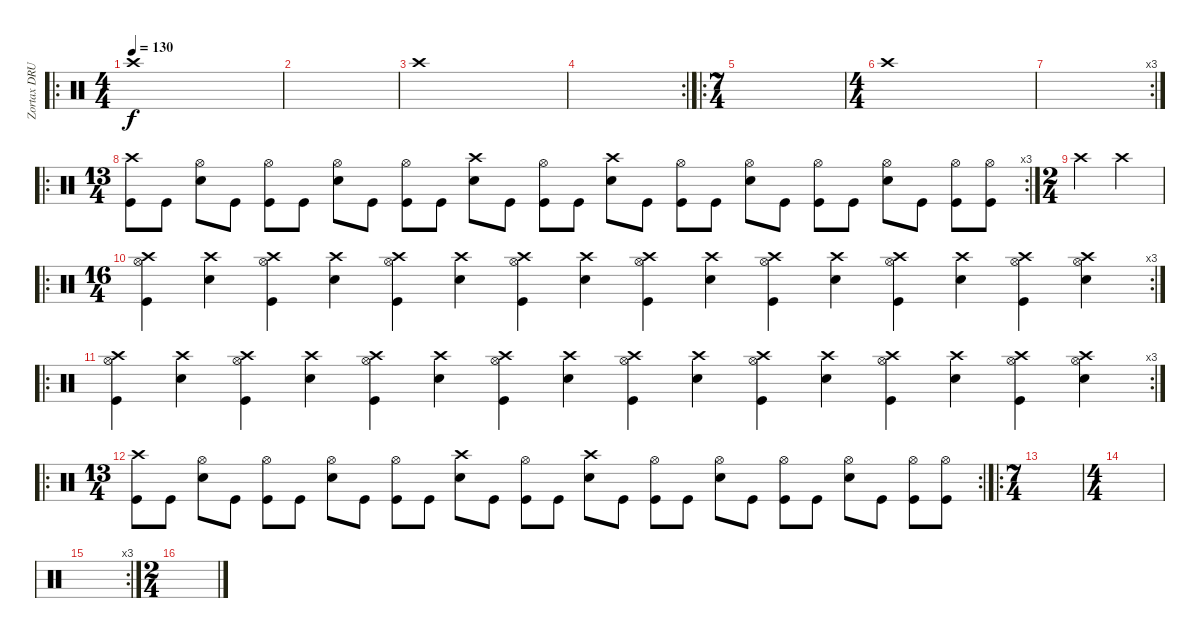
\track ("Zortax DRUMS" "Zortax DRU") {instrument percussion}
\staff {score}
\articulation defaults
\ro
\ts (4 4)
\tempo 130
\clef neutral
\ks c "Crash high (hit)".1{dy f}
|
|
"Crash high (hit)".1 |
\rc 2
|
\ro
\ts (7 4)
|
\ts (4 4)
"Crash high (hit)".1 |
\rc 3
|
\ro
\rc 3
\ts (13 4)
("Crash high (hit)" "Kick (hit)").8 "Kick (hit)".8 ("Hi-Hat (open)" "Electric Snare (hit)").8 "Kick (hit)".8 ("Hi-Hat (open)" "Kick (hit)").8 "Kick (hit)".8 ("Hi-Hat (open)" "Electric Snare (hit)").8 "Kick (hit)".8 ("Hi-Hat (open)" "Kick (hit)").8 "Kick (hit)".8 ("Crash high (hit)" "Electric Snare (hit)").8 "Kick (hit)".8 ("Hi-Hat (open)" "Kick (hit)").8 "Kick (hit)".8 ("Crash high (hit)" "Electric Snare (hit)").8 "Kick (hit)".8 ("Hi-Hat (open)" "Kick (hit)").8 "Kick (hit)".8 ("Hi-Hat (open)" "Electric Snare (hit)").8 "Kick (hit)".8 ("Hi-Hat (open)" "Kick (hit)").8 "Kick (hit)".8 ("Hi-Hat (open)" "Electric Snare (hit)").8 "Kick (hit)".8 ("Hi-Hat (open)" "Kick (hit)").8 ("Hi-Hat (open)" "Kick (hit)").8 |
\ts (2 4)
"Crash high (hit)".4 "Crash high (hit)".4 |
\ro
\rc 3
\ts (16 4)
("Kick (hit)" "Hi-Hat (open)" "Crash high (hit)").4 ("Snare (hit) 2" "Crash high (hit)").4 ("Kick (hit)" "Hi-Hat (open)" "Crash high (hit)").4 ("Snare (hit) 2" "Crash high (hit)").4 ("Kick (hit)" "Hi-Hat (open)" "Crash high (hit)").4 ("Snare (hit) 2" "Crash high (hit)").4 ("Kick (hit)" "Hi-Hat (open)" "Crash high (hit)").4 ("Snare (hit) 2" "Crash high (hit)").4 ("Kick (hit)" "Hi-Hat (open)" "Crash high (hit)").4 ("Snare (hit) 2" "Crash high (hit)").4 ("Kick (hit)" "Hi-Hat (open)" "Crash high (hit)").4 ("Snare (hit) 2" "Crash high (hit)").4 ("Kick (hit)" "Hi-Hat (open)" "Crash high (hit)").4 ("Snare (hit) 2" "Crash high (hit)").4 ("Kick (hit)" "Hi-Hat (open)" "Crash high (hit)").4 ("Snare (hit) 2" "Hi-Hat (open)" "Crash high (hit)").4 |
\ro
\rc 3
("Kick (hit)" "Hi-Hat (open)" "Crash high (hit)").4 ("Snare (hit) 2" "Crash high (hit)").4 ("Kick (hit)" "Hi-Hat (open)" "Crash high (hit)").4 ("Snare (hit) 2" "Crash high (hit)").4 ("Kick (hit)" "Hi-Hat (open)" "Crash high (hit)").4 ("Snare (hit) 2" "Crash high (hit)").4 ("Kick (hit)" "Hi-Hat (open)" "Crash high (hit)").4 ("Snare (hit) 2" "Crash high (hit)").4 ("Kick (hit)" "Hi-Hat (open)" "Crash high (hit)").4 ("Snare (hit) 2" "Crash high (hit)").4 ("Kick (hit)" "Hi-Hat (open)" "Crash high (hit)").4 ("Snare (hit) 2" "Crash high (hit)").4 ("Kick (hit)" "Hi-Hat (open)" "Crash high (hit)").4 ("Snare (hit) 2" "Crash high (hit)").4 ("Kick (hit)" "Hi-Hat (open)" "Crash high (hit)").4 ("Snare (hit) 2" "Hi-Hat (open)" "Crash high (hit)").4 |
\ro
\rc 2
\ts (13 4)
("Crash high (hit)" "Kick (hit)").8 "Kick (hit)".8 ("Hi-Hat (open)" "Electric Snare (hit)").8 "Kick (hit)".8 ("Hi-Hat (open)" "Kick (hit)").8 "Kick (hit)".8 ("Hi-Hat (open)" "Electric Snare (hit)").8 "Kick (hit)".8 ("Hi-Hat (open)" "Kick (hit)").8 "Kick (hit)".8 ("Crash high (hit)" "Electric Snare (hit)").8 "Kick (hit)".8 ("Hi-Hat (open)" "Kick (hit)").8 "Kick (hit)".8 ("Crash high (hit)" "Electric Snare (hit)").8 "Kick (hit)".8 ("Hi-Hat (open)" "Kick (hit)").8 "Kick (hit)".8 ("Hi-Hat (open)" "Electric Snare (hit)").8 "Kick (hit)".8 ("Hi-Hat (open)" "Kick (hit)").8 "Kick (hit)".8 ("Hi-Hat (open)" "Electric Snare (hit)").8 "Kick (hit)".8 ("Hi-Hat (open)" "Kick (hit)").8 ("Hi-Hat (open)" "Kick (hit)").8 |
\ro
\ts (7 4)
|
\ts (4 4)
|
\rc 3
|
\ts (2 4)
